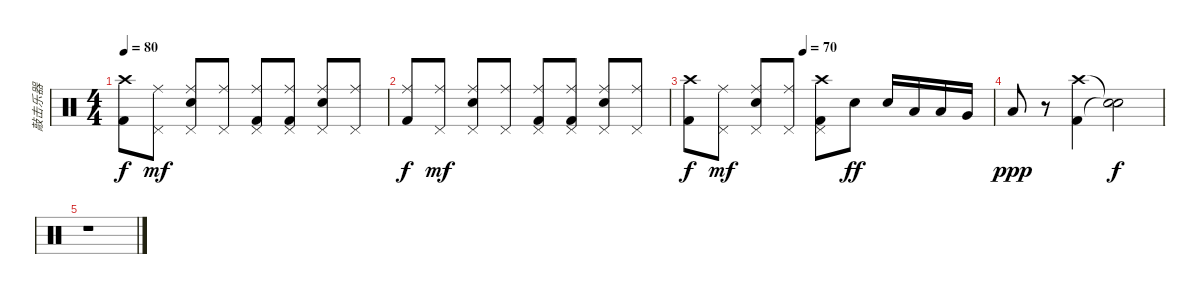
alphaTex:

\track ("敲击乐器" "敲击乐器") {instrument percussion}
\staff {score}
\articulation defaults
\ts (4 4)
\tempo 80
\clef neutral
\ks c
("Crash high (hit)" "Kick (hit) 2").8{dy f} ("Ride (middle)" "Pedal Hi-Hat (hit)").8{dy mf} ("Ride (middle)" "Electric Snare (hit)" "Pedal Hi-Hat (hit)").8 ("Ride (middle)" "Pedal Hi-Hat (hit)").8 ("Ride (middle)" "Kick (hit) 2" "Pedal Hi-Hat (hit)").8 ("Ride (middle)" "Kick (hit) 2" "Pedal Hi-Hat (hit)").8 ("Ride (middle)" "Electric Snare (hit)" "Pedal Hi-Hat (hit)").8 ("Ride (middle)" "Pedal Hi-Hat (hit)").8 |
("Ride (middle)" "Kick (hit) 2").8{dy f} ("Ride (middle)" "Pedal Hi-Hat (hit)").8{dy mf} ("Ride (middle)" "Electric Snare (hit)" "Pedal Hi-Hat (hit)").8 ("Ride (middle)" "Pedal Hi-Hat (hit)").8 ("Ride (middle)" "Kick (hit) 2" "Pedal Hi-Hat (hit)").8 ("Ride (middle)" "Kick (hit) 2" "Pedal Hi-Hat (hit)").8 ("Ride (middle)" "Electric Snare (hit)" "Pedal Hi-Hat (hit)").8 ("Ride (middle)" "Pedal Hi-Hat (hit)").8 |
\tempo (70 0.375)
("Crash high (hit)" "Kick (hit) 2").8{dy f} ("Ride (middle)" "Pedal Hi-Hat (hit)").8{dy mf} ("Ride (middle)" "Electric Snare (hit)" "Pedal Hi-Hat (hit)").8 ("Ride (middle)" "Pedal Hi-Hat (hit)").8 ("Crash high (hit)" "Kick (hit) 2" "Pedal Hi-Hat (hit)").8 "Electric Snare (hit)".8{dy ff} "Electric Snare (hit)".16 "Low Tom (hit)".16 "Low Tom (hit)".16 "Very Low Tom (hit)".16 |
"Low Floor Tom (hit)".8{dy ppp} r.8 ("Crash high (hit)" "Kick (hit) 2").4 ("Snare (hit)"{t} "Snare (hit)"{t}).2{dy f} |
r.1
